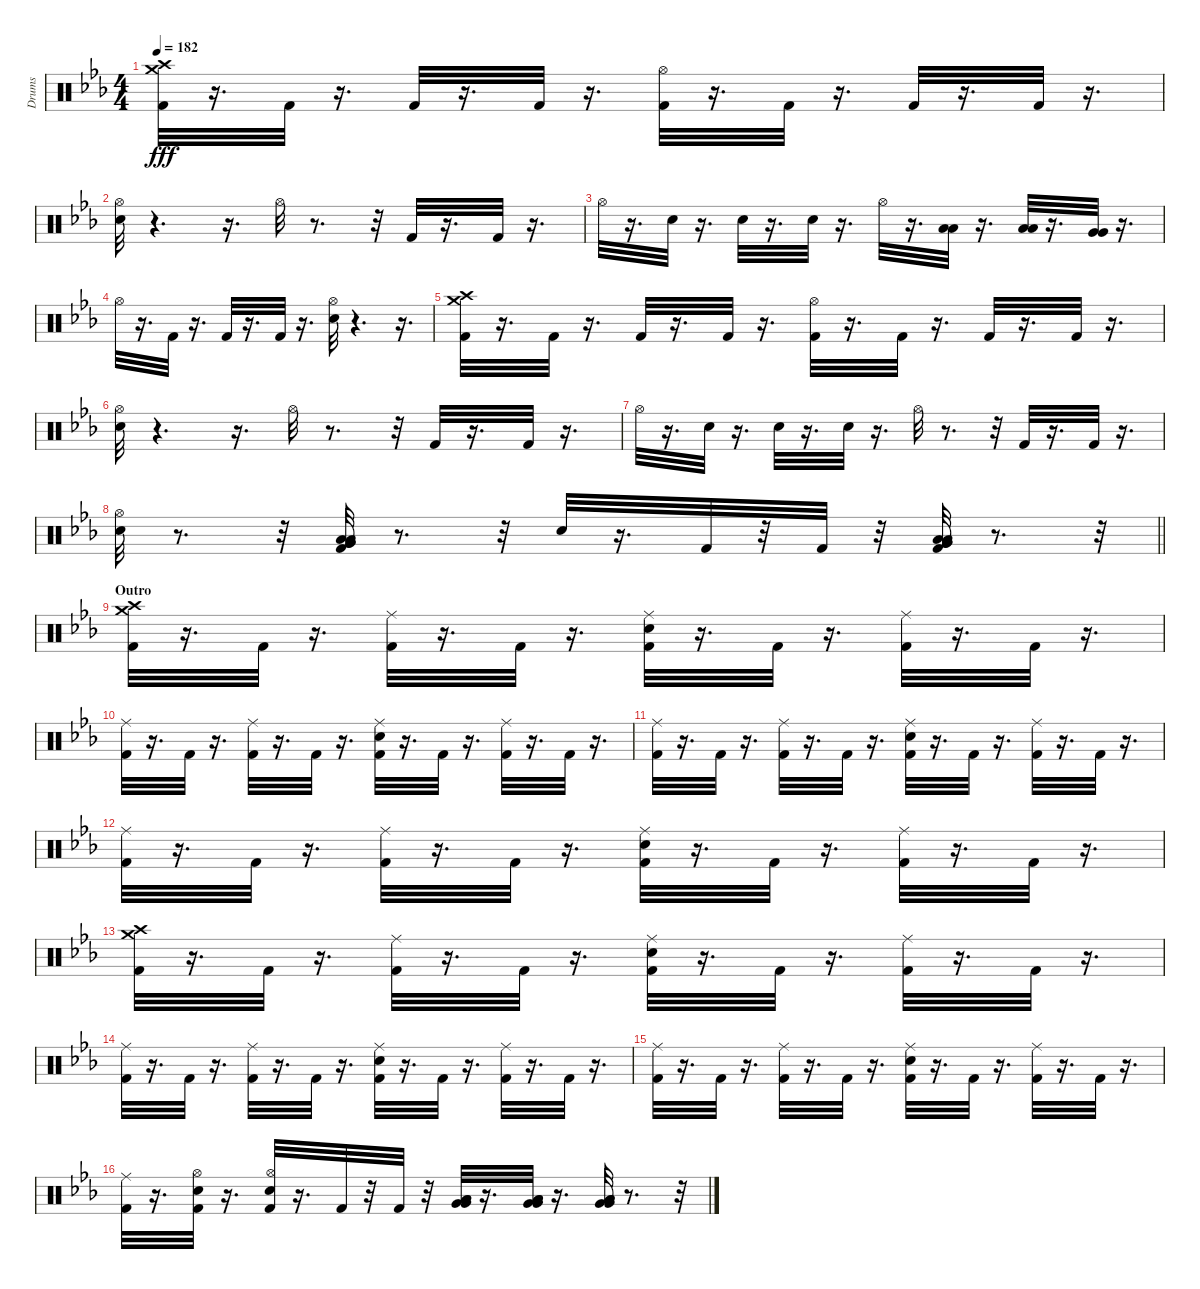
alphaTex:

\track ("Drums" "Drums") {instrument percussion}
\staff {score}
\articulation defaults
\ts (4 4)
\tempo 182
\clef neutral
\ks cminor
("Crash medium (hit)" "Crash high (hit)" "Kick (hit) 2").32{dy fff} r.16{d} "Kick (hit) 2".32 r.16{d} "Kick (hit) 2".32 r.16{d} "Kick (hit) 2".32 r.16{d} ("Hi-Hat (open)" "Kick (hit) 2").32 r.16{d} "Kick (hit) 2".32 r.16{d} "Kick (hit) 2".32 r.16{d} "Kick (hit) 2".32 r.16{d} |
("Hi-Hat (open)" "Snare (hit) 2").32 r.4{d} r.16{d} "Hi-Hat (open)".32 r.8{d} r.32 "Kick (hit) 2".32 r.16{d} "Kick (hit) 2".32 r.16{d} |
"Hi-Hat (open)".32 r.16{d} "Snare (hit) 2".32 r.16{d} "Snare (hit) 2".32 r.16{d} "Snare (hit) 2".32 r.16{d} "Hi-Hat (open)".32 r.16{d} ("Low Tom (hit)" "Low Tom (hit)").32 r.16{d} ("Low Tom (hit)" "Low Tom (hit)").32 r.16{d} ("Very Low Tom (hit)" "Very Low Tom (hit)").32 r.16{d} |
"Hi-Hat (open)".32 r.16{d} "Kick (hit) 2".32 r.16{d} "Kick (hit) 2".32 r.16{d} "Kick (hit) 2".32 r.16{d} ("Hi-Hat (open)" "Snare (hit) 2").32 r.4{d} r.16{d} |
("Crash medium (hit)" "Crash high (hit)" "Kick (hit) 2").32 r.16{d} "Kick (hit) 2".32 r.16{d} "Kick (hit) 2".32 r.16{d} "Kick (hit) 2".32 r.16{d} ("Hi-Hat (open)" "Kick (hit) 2").32 r.16{d} "Kick (hit) 2".32 r.16{d} "Kick (hit) 2".32 r.16{d} "Kick (hit) 2".32 r.16{d} |
("Hi-Hat (open)" "Snare (hit) 2").32 r.4{d} r.16{d} "Hi-Hat (open)".32 r.8{d} r.32 "Kick (hit) 2".32 r.16{d} "Kick (hit) 2".32 r.16{d} |
"Hi-Hat (open)".32 r.16{d} "Snare (hit) 2".32 r.16{d} "Snare (hit) 2".32 r.16{d} "Snare (hit) 2".32 r.16{d} "Hi-Hat (open)".32 r.8{d} r.32 "Kick (hit) 2".32 r.16{d} "Kick (hit) 2".32 r.16{d} |
\barLineRight lightlight
("Snare (hit) 2" "Hi-Hat (open)").32 r.8{d} r.32 ("Very Low Tom (hit)" "Very Low Tom (hit)" "Low Floor Tom (hit)" "Low Floor Tom (hit)" "Kick (hit) 2").32 r.8{d} r.32 "Snare (hit) 2".32 r.16{d} "Kick (hit) 2".32 r.32 "Kick (hit) 2".32 r.32 ("Low Floor Tom (hit)" "Very Low Tom (hit)" "Very Low Tom (hit)" "Low Floor Tom (hit)" "Kick (hit) 2").32 r.8{d} r.32 |
\section ("" "Outro")
("Crash medium (hit)" "Crash high (hit)" "Kick (hit) 2").32 r.16{d} "Kick (hit) 2".32 r.16{d} ("Kick (hit) 2" "Ride (middle)").32 r.16{d} "Kick (hit) 2".32 r.16{d} ("Snare (hit) 2" "Ride (middle)" "Kick (hit) 2").32 r.16{d} "Kick (hit) 2".32 r.16{d} ("Kick (hit) 2" "Ride (middle)").32 r.16{d} "Kick (hit) 2".32 r.16{d} |
("Kick (hit) 2" "Ride (middle)").32 r.16{d} "Kick (hit) 2".32 r.16{d} ("Kick (hit) 2" "Ride (middle)").32 r.16{d} "Kick (hit) 2".32 r.16{d} ("Snare (hit) 2" "Kick (hit) 2" "Ride (middle)").32 r.16{d} "Kick (hit) 2".32 r.16{d} ("Ride (middle)" "Kick (hit) 2").32 r.16{d} "Kick (hit) 2".32 r.16{d} |
("Kick (hit) 2" "Ride (middle)").32 r.16{d} "Kick (hit) 2".32 r.16{d} ("Ride (middle)" "Kick (hit) 2").32 r.16{d} "Kick (hit) 2".32 r.16{d} ("Snare (hit) 2" "Kick (hit) 2" "Ride (middle)").32 r.16{d} "Kick (hit) 2".32 r.16{d} ("Kick (hit) 2" "Ride (middle)").32 r.16{d} "Kick (hit) 2".32 r.16{d} |
("Ride (middle)" "Kick (hit) 2").32 r.16{d} "Kick (hit) 2".32 r.16{d} ("Ride (middle)" "Kick (hit) 2").32 r.16{d} "Kick (hit) 2".32 r.16{d} ("Ride (middle)" "Snare (hit) 2" "Kick (hit) 2").32 r.16{d} "Kick (hit) 2".32 r.16{d} ("Ride (middle)" "Kick (hit) 2").32 r.16{d} "Kick (hit) 2".32 r.16{d} |
("Crash medium (hit)" "Crash high (hit)" "Kick (hit) 2").32 r.16{d} "Kick (hit) 2".32 r.16{d} ("Kick (hit) 2" "Ride (middle)").32 r.16{d} "Kick (hit) 2".32 r.16{d} ("Snare (hit) 2" "Ride (middle)" "Kick (hit) 2").32 r.16{d} "Kick (hit) 2".32 r.16{d} ("Kick (hit) 2" "Ride (middle)").32 r.16{d} "Kick (hit) 2".32 r.16{d} |
("Kick (hit) 2" "Ride (middle)").32 r.16{d} "Kick (hit) 2".32 r.16{d} ("Kick (hit) 2" "Ride (middle)").32 r.16{d} "Kick (hit) 2".32 r.16{d} ("Snare (hit) 2" "Kick (hit) 2" "Ride (middle)").32 r.16{d} "Kick (hit) 2".32 r.16{d} ("Ride (middle)" "Kick (hit) 2").32 r.16{d} "Kick (hit) 2".32 r.16{d} |
("Kick (hit) 2" "Ride (middle)").32 r.16{d} "Kick (hit) 2".32 r.16{d} ("Ride (middle)" "Kick (hit) 2").32 r.16{d} "Kick (hit) 2".32 r.16{d} ("Snare (hit) 2" "Kick (hit) 2" "Ride (middle)").32 r.16{d} "Kick (hit) 2".32 r.16{d} ("Kick (hit) 2" "Ride (middle)").32 r.16{d} "Kick (hit) 2".32 r.16{d} |
("Ride (middle)" "Kick (hit) 2").32 r.16{d} ("Hi-Hat (open)" "Snare (hit) 2" "Kick (hit) 2").32 r.16{d} ("Hi-Hat (open)" "Snare (hit) 2" "Kick (hit) 2").32 r.16{d} "Kick (hit) 2".32 r.32 "Kick (hit) 2".32 r.32 ("Very Low Tom (hit)" "Very Low Tom (hit)" "Low Floor Tom (hit)" "Low Floor Tom (hit)").32 r.16{d} ("Very Low Tom (hit)" "Low Floor Tom (hit)" "Very Low Tom (hit)" "Low Floor Tom (hit)").32 r.16{d} ("Very Low Tom (hit)" "Low Floor Tom (hit)" "Very Low Tom (hit)" "Low Floor Tom (hit)").32 r.8{d} r.32
